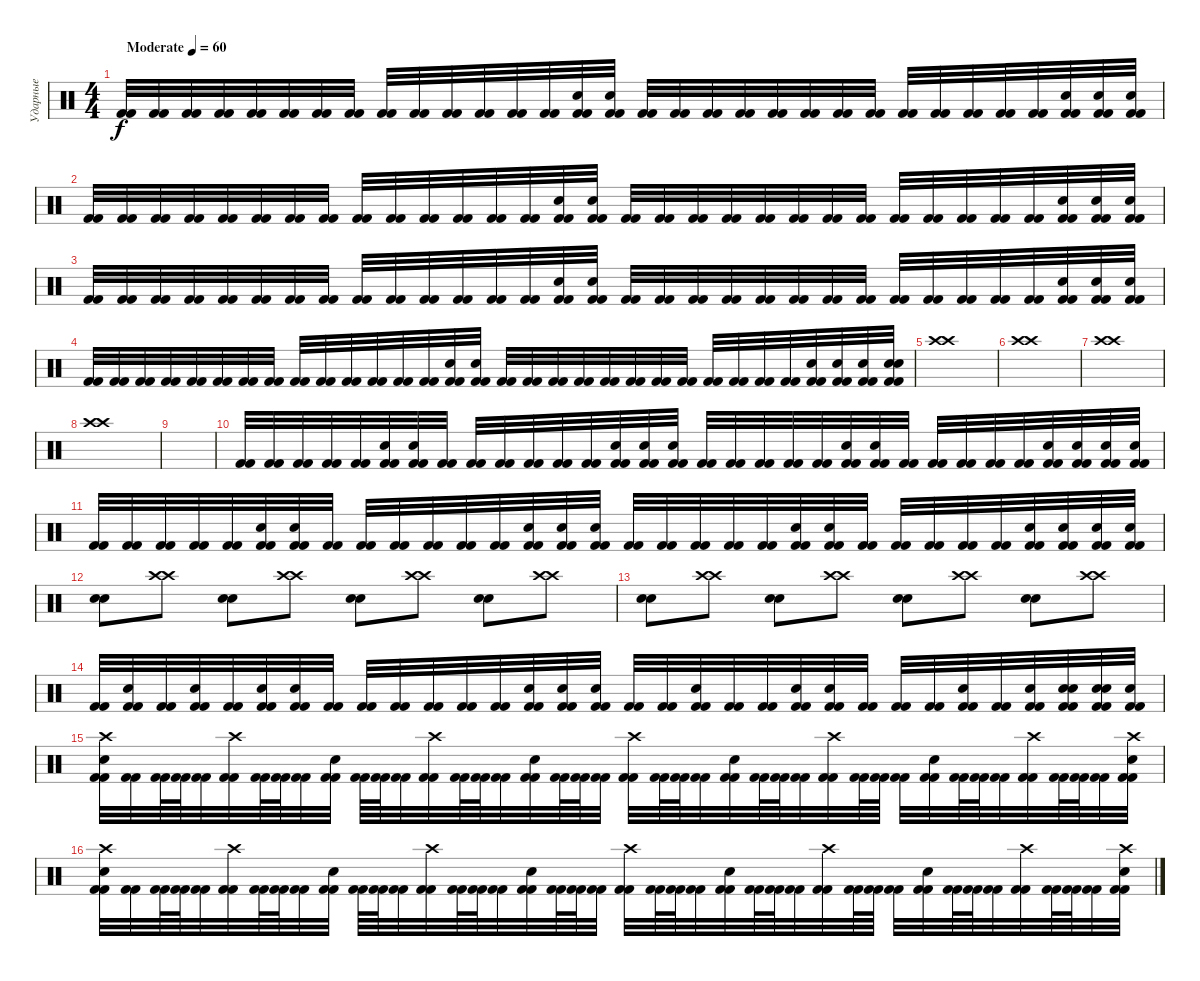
\track ("Ударные" "Ударные") {instrument percussion}
\staff {score}
\articulation defaults
\ts (4 4)
\tempo (60 "Moderate")
\clef neutral
\ks c
("Kick (hit) 2" "Kick (hit) 2").32{dy f} ("Kick (hit) 2" "Kick (hit) 2").32 ("Kick (hit) 2" "Kick (hit) 2").32 ("Kick (hit) 2" "Kick (hit) 2").32 ("Kick (hit) 2" "Kick (hit) 2").32 ("Kick (hit) 2" "Kick (hit) 2").32 ("Kick (hit) 2" "Kick (hit) 2").32 ("Kick (hit) 2" "Kick (hit) 2").32 ("Kick (hit) 2" "Kick (hit) 2").32 ("Kick (hit) 2" "Kick (hit) 2").32 ("Kick (hit) 2" "Kick (hit) 2").32 ("Kick (hit) 2" "Kick (hit) 2").32 ("Kick (hit) 2" "Kick (hit) 2").32 ("Kick (hit) 2" "Kick (hit) 2").32 ("Kick (hit) 2" "Kick (hit) 2" "Electric Snare (hit)").32 ("Kick (hit) 2" "Kick (hit) 2" "Electric Snare (hit)").32 ("Kick (hit) 2" "Kick (hit) 2").32 ("Kick (hit) 2" "Kick (hit) 2").32 ("Kick (hit) 2" "Kick (hit) 2").32 ("Kick (hit) 2" "Kick (hit) 2").32 ("Kick (hit) 2" "Kick (hit) 2").32 ("Kick (hit) 2" "Kick (hit) 2").32 ("Kick (hit) 2" "Kick (hit) 2").32 ("Kick (hit) 2" "Kick (hit) 2").32 ("Kick (hit) 2" "Kick (hit) 2").32 ("Kick (hit) 2" "Kick (hit) 2").32 ("Kick (hit) 2" "Kick (hit) 2").32 ("Kick (hit) 2" "Kick (hit) 2").32 ("Kick (hit) 2" "Kick (hit) 2").32 ("Kick (hit) 2" "Kick (hit) 2" "Electric Snare (hit)").32 ("Kick (hit) 2" "Kick (hit) 2" "Electric Snare (hit)").32 ("Kick (hit) 2" "Kick (hit) 2" "Electric Snare (hit)").32 |
("Kick (hit) 2" "Kick (hit) 2").32 ("Kick (hit) 2" "Kick (hit) 2").32 ("Kick (hit) 2" "Kick (hit) 2").32 ("Kick (hit) 2" "Kick (hit) 2").32 ("Kick (hit) 2" "Kick (hit) 2").32 ("Kick (hit) 2" "Kick (hit) 2").32 ("Kick (hit) 2" "Kick (hit) 2").32 ("Kick (hit) 2" "Kick (hit) 2").32 ("Kick (hit) 2" "Kick (hit) 2").32 ("Kick (hit) 2" "Kick (hit) 2").32 ("Kick (hit) 2" "Kick (hit) 2").32 ("Kick (hit) 2" "Kick (hit) 2").32 ("Kick (hit) 2" "Kick (hit) 2").32 ("Kick (hit) 2" "Kick (hit) 2").32 ("Kick (hit) 2" "Kick (hit) 2" "Electric Snare (hit)").32 ("Kick (hit) 2" "Kick (hit) 2" "Electric Snare (hit)").32 ("Kick (hit) 2" "Kick (hit) 2").32 ("Kick (hit) 2" "Kick (hit) 2").32 ("Kick (hit) 2" "Kick (hit) 2").32 ("Kick (hit) 2" "Kick (hit) 2").32 ("Kick (hit) 2" "Kick (hit) 2").32 ("Kick (hit) 2" "Kick (hit) 2").32 ("Kick (hit) 2" "Kick (hit) 2").32 ("Kick (hit) 2" "Kick (hit) 2").32 ("Kick (hit) 2" "Kick (hit) 2").32 ("Kick (hit) 2" "Kick (hit) 2").32 ("Kick (hit) 2" "Kick (hit) 2").32 ("Kick (hit) 2" "Kick (hit) 2").32 ("Kick (hit) 2" "Kick (hit) 2").32 ("Kick (hit) 2" "Kick (hit) 2" "Electric Snare (hit)").32 ("Kick (hit) 2" "Kick (hit) 2" "Electric Snare (hit)").32 ("Kick (hit) 2" "Kick (hit) 2" "Electric Snare (hit)").32 |
("Kick (hit) 2" "Kick (hit) 2").32 ("Kick (hit) 2" "Kick (hit) 2").32 ("Kick (hit) 2" "Kick (hit) 2").32 ("Kick (hit) 2" "Kick (hit) 2").32 ("Kick (hit) 2" "Kick (hit) 2").32 ("Kick (hit) 2" "Kick (hit) 2").32 ("Kick (hit) 2" "Kick (hit) 2").32 ("Kick (hit) 2" "Kick (hit) 2").32 ("Kick (hit) 2" "Kick (hit) 2").32 ("Kick (hit) 2" "Kick (hit) 2").32 ("Kick (hit) 2" "Kick (hit) 2").32 ("Kick (hit) 2" "Kick (hit) 2").32 ("Kick (hit) 2" "Kick (hit) 2").32 ("Kick (hit) 2" "Kick (hit) 2").32 ("Kick (hit) 2" "Kick (hit) 2" "Electric Snare (hit)").32 ("Kick (hit) 2" "Kick (hit) 2" "Electric Snare (hit)").32 ("Kick (hit) 2" "Kick (hit) 2").32 ("Kick (hit) 2" "Kick (hit) 2").32 ("Kick (hit) 2" "Kick (hit) 2").32 ("Kick (hit) 2" "Kick (hit) 2").32 ("Kick (hit) 2" "Kick (hit) 2").32 ("Kick (hit) 2" "Kick (hit) 2").32 ("Kick (hit) 2" "Kick (hit) 2").32 ("Kick (hit) 2" "Kick (hit) 2").32 ("Kick (hit) 2" "Kick (hit) 2").32 ("Kick (hit) 2" "Kick (hit) 2").32 ("Kick (hit) 2" "Kick (hit) 2").32 ("Kick (hit) 2" "Kick (hit) 2").32 ("Kick (hit) 2" "Kick (hit) 2").32 ("Kick (hit) 2" "Kick (hit) 2" "Electric Snare (hit)").32 ("Kick (hit) 2" "Kick (hit) 2" "Electric Snare (hit)").32 ("Kick (hit) 2" "Kick (hit) 2" "Electric Snare (hit)").32 |
("Kick (hit) 2" "Kick (hit) 2").32 ("Kick (hit) 2" "Kick (hit) 2").32 ("Kick (hit) 2" "Kick (hit) 2").32 ("Kick (hit) 2" "Kick (hit) 2").32 ("Kick (hit) 2" "Kick (hit) 2").32 ("Kick (hit) 2" "Kick (hit) 2").32 ("Kick (hit) 2" "Kick (hit) 2").32 ("Kick (hit) 2" "Kick (hit) 2").32 ("Kick (hit) 2" "Kick (hit) 2").32 ("Kick (hit) 2" "Kick (hit) 2").32 ("Kick (hit) 2" "Kick (hit) 2").32 ("Kick (hit) 2" "Kick (hit) 2").32 ("Kick (hit) 2" "Kick (hit) 2").32 ("Kick (hit) 2" "Kick (hit) 2").32 ("Kick (hit) 2" "Kick (hit) 2" "Electric Snare (hit)").32 ("Kick (hit) 2" "Kick (hit) 2" "Electric Snare (hit)").32 ("Kick (hit) 2" "Kick (hit) 2").32 ("Kick (hit) 2" "Kick (hit) 2").32 ("Kick (hit) 2" "Kick (hit) 2").32 ("Kick (hit) 2" "Kick (hit) 2").32 ("Kick (hit) 2" "Kick (hit) 2").32 ("Kick (hit) 2" "Kick (hit) 2").32 ("Kick (hit) 2" "Kick (hit) 2").32 ("Kick (hit) 2" "Kick (hit) 2").32 ("Kick (hit) 2" "Kick (hit) 2").32 ("Kick (hit) 2" "Kick (hit) 2").32 ("Kick (hit) 2" "Kick (hit) 2").32 ("Kick (hit) 2" "Kick (hit) 2").32 ("Kick (hit) 2" "Kick (hit) 2" "Electric Snare (hit)").32 ("Kick (hit) 2" "Kick (hit) 2" "Electric Snare (hit)").32 ("Kick (hit) 2" "Kick (hit) 2" "Electric Snare (hit)").32 ("Kick (hit) 2" "Kick (hit) 2" "Electric Snare (hit)" "Electric Snare (hit)").32 |
("Crash high (hit)" "Crash high (hit)").1 |
("Crash high (hit)" "Crash high (hit)").1 |
("Crash high (hit)" "Crash high (hit)").1 |
("Crash high (hit)" "Crash high (hit)").1 |
|
("Kick (hit) 2" "Kick (hit) 2").32 ("Kick (hit) 2" "Kick (hit) 2").32 ("Kick (hit) 2" "Kick (hit) 2").32 ("Kick (hit) 2" "Kick (hit) 2").32 ("Kick (hit) 2" "Kick (hit) 2").32 ("Kick (hit) 2" "Kick (hit) 2" "Electric Snare (hit)").32 ("Kick (hit) 2" "Kick (hit) 2" "Electric Snare (hit)").32 ("Kick (hit) 2" "Kick (hit) 2").32 ("Kick (hit) 2" "Kick (hit) 2").32 ("Kick (hit) 2" "Kick (hit) 2").32 ("Kick (hit) 2" "Kick (hit) 2").32 ("Kick (hit) 2" "Kick (hit) 2").32 ("Kick (hit) 2" "Kick (hit) 2").32 ("Kick (hit) 2" "Kick (hit) 2" "Electric Snare (hit)").32 ("Kick (hit) 2" "Kick (hit) 2" "Electric Snare (hit)").32 ("Kick (hit) 2" "Kick (hit) 2" "Electric Snare (hit)").32 ("Kick (hit) 2" "Kick (hit) 2").32 ("Kick (hit) 2" "Kick (hit) 2").32 ("Kick (hit) 2" "Kick (hit) 2").32 ("Kick (hit) 2" "Kick (hit) 2").32 ("Kick (hit) 2" "Kick (hit) 2").32 ("Kick (hit) 2" "Kick (hit) 2" "Electric Snare (hit)").32 ("Kick (hit) 2" "Kick (hit) 2" "Electric Snare (hit)").32 ("Kick (hit) 2" "Kick (hit) 2").32 ("Kick (hit) 2" "Kick (hit) 2").32 ("Kick (hit) 2" "Kick (hit) 2").32 ("Kick (hit) 2" "Kick (hit) 2").32 ("Kick (hit) 2" "Kick (hit) 2").32 ("Kick (hit) 2" "Kick (hit) 2" "Electric Snare (hit)").32 ("Kick (hit) 2" "Kick (hit) 2" "Electric Snare (hit)").32 ("Kick (hit) 2" "Kick (hit) 2" "Electric Snare (hit)").32 ("Kick (hit) 2" "Kick (hit) 2" "Electric Snare (hit)").32 |
("Kick (hit) 2" "Kick (hit) 2").32 ("Kick (hit) 2" "Kick (hit) 2").32 ("Kick (hit) 2" "Kick (hit) 2").32 ("Kick (hit) 2" "Kick (hit) 2").32 ("Kick (hit) 2" "Kick (hit) 2").32 ("Kick (hit) 2" "Kick (hit) 2" "Electric Snare (hit)").32 ("Kick (hit) 2" "Kick (hit) 2" "Electric Snare (hit)").32 ("Kick (hit) 2" "Kick (hit) 2").32 ("Kick (hit) 2" "Kick (hit) 2").32 ("Kick (hit) 2" "Kick (hit) 2").32 ("Kick (hit) 2" "Kick (hit) 2").32 ("Kick (hit) 2" "Kick (hit) 2").32 ("Kick (hit) 2" "Kick (hit) 2").32 ("Kick (hit) 2" "Kick (hit) 2" "Electric Snare (hit)").32 ("Kick (hit) 2" "Kick (hit) 2" "Electric Snare (hit)").32 ("Kick (hit) 2" "Kick (hit) 2" "Electric Snare (hit)").32 ("Kick (hit) 2" "Kick (hit) 2").32 ("Kick (hit) 2" "Kick (hit) 2").32 ("Kick (hit) 2" "Kick (hit) 2").32 ("Kick (hit) 2" "Kick (hit) 2").32 ("Kick (hit) 2" "Kick (hit) 2").32 ("Kick (hit) 2" "Kick (hit) 2" "Electric Snare (hit)").32 ("Kick (hit) 2" "Kick (hit) 2" "Electric Snare (hit)").32 ("Kick (hit) 2" "Kick (hit) 2").32 ("Kick (hit) 2" "Kick (hit) 2").32 ("Kick (hit) 2" "Kick (hit) 2").32 ("Kick (hit) 2" "Kick (hit) 2").32 ("Kick (hit) 2" "Kick (hit) 2").32 ("Kick (hit) 2" "Kick (hit) 2" "Electric Snare (hit)").32 ("Kick (hit) 2" "Kick (hit) 2" "Electric Snare (hit)").32 ("Kick (hit) 2" "Kick (hit) 2" "Electric Snare (hit)").32 ("Kick (hit) 2" "Kick (hit) 2" "Electric Snare (hit)").32 |
("Electric Snare (hit)" "Electric Snare (hit)").8 ("Crash high (hit)" "Crash high (hit)").8 ("Electric Snare (hit)" "Electric Snare (hit)").8 ("Crash high (hit)" "Crash high (hit)").8 ("Electric Snare (hit)" "Electric Snare (hit)").8 ("Crash high (hit)" "Crash high (hit)").8 ("Electric Snare (hit)" "Electric Snare (hit)").8 ("Crash high (hit)" "Crash high (hit)").8 |
("Electric Snare (hit)" "Electric Snare (hit)").8 ("Crash high (hit)" "Crash high (hit)").8 ("Electric Snare (hit)" "Electric Snare (hit)").8 ("Crash high (hit)" "Crash high (hit)").8 ("Electric Snare (hit)" "Electric Snare (hit)").8 ("Crash high (hit)" "Crash high (hit)").8 ("Electric Snare (hit)" "Electric Snare (hit)").8 ("Crash high (hit)" "Crash high (hit)").8 |
("Kick (hit) 2" "Kick (hit) 2").32 ("Kick (hit) 2" "Kick (hit) 2" "Electric Snare (hit)").32 ("Kick (hit) 2" "Kick (hit) 2").32 ("Kick (hit) 2" "Kick (hit) 2" "Electric Snare (hit)").32 ("Kick (hit) 2" "Kick (hit) 2").32 ("Kick (hit) 2" "Kick (hit) 2" "Electric Snare (hit)").32 ("Kick (hit) 2" "Kick (hit) 2" "Electric Snare (hit)").32 ("Kick (hit) 2" "Kick (hit) 2").32 ("Kick (hit) 2" "Kick (hit) 2").32 ("Kick (hit) 2" "Kick (hit) 2").32 ("Kick (hit) 2" "Kick (hit) 2").32 ("Kick (hit) 2" "Kick (hit) 2").32 ("Kick (hit) 2" "Kick (hit) 2").32 ("Kick (hit) 2" "Kick (hit) 2" "Electric Snare (hit)").32 ("Kick (hit) 2" "Kick (hit) 2" "Electric Snare (hit)").32 ("Kick (hit) 2" "Kick (hit) 2" "Electric Snare (hit)").32 ("Kick (hit) 2" "Kick (hit) 2").32 ("Kick (hit) 2" "Kick (hit) 2").32 ("Kick (hit) 2" "Kick (hit) 2" "Electric Snare (hit)").32 ("Kick (hit) 2" "Kick (hit) 2").32 ("Kick (hit) 2" "Kick (hit) 2").32 ("Kick (hit) 2" "Kick (hit) 2" "Electric Snare (hit)").32 ("Kick (hit) 2" "Kick (hit) 2" "Electric Snare (hit)").32 ("Kick (hit) 2" "Kick (hit) 2").32 ("Kick (hit) 2" "Kick (hit) 2").32 ("Kick (hit) 2" "Kick (hit) 2").32 ("Kick (hit) 2" "Kick (hit) 2" "Electric Snare (hit)").32 ("Kick (hit) 2" "Kick (hit) 2").32 ("Kick (hit) 2" "Kick (hit) 2" "Electric Snare (hit)").32 ("Kick (hit) 2" "Kick (hit) 2" "Electric Snare (hit)" "Electric Snare (hit)").32 ("Kick (hit) 2" "Kick (hit) 2" "Electric Snare (hit)" "Electric Snare (hit)").32 ("Kick (hit) 2" "Kick (hit) 2" "Electric Snare (hit)").32 |
("Kick (hit) 2" "Kick (hit) 2" "Electric Snare (hit)" "Crash high (hit)").32 ("Kick (hit) 2" "Kick (hit) 2").32 ("Kick (hit) 2" "Kick (hit) 2").64 ("Kick (hit) 2" "Kick (hit) 2").64 ("Kick (hit) 2" "Kick (hit) 2").32 ("Kick (hit) 2" "Kick (hit) 2" "Crash high (hit)").32 ("Kick (hit) 2" "Kick (hit) 2").64 ("Kick (hit) 2" "Kick (hit) 2").64 ("Kick (hit) 2" "Kick (hit) 2").32 ("Kick (hit) 2" "Kick (hit) 2" "Electric Snare (hit)").32 ("Kick (hit) 2" "Kick (hit) 2").64 ("Kick (hit) 2" "Kick (hit) 2").64 ("Kick (hit) 2" "Kick (hit) 2").32 ("Kick (hit) 2" "Kick (hit) 2" "Crash high (hit)").32 ("Kick (hit) 2" "Kick (hit) 2").64 ("Kick (hit) 2" "Kick (hit) 2").64 ("Kick (hit) 2" "Kick (hit) 2").32 ("Kick (hit) 2" "Kick (hit) 2" "Electric Snare (hit)").32 ("Kick (hit) 2" "Kick (hit) 2").64 ("Kick (hit) 2" "Kick (hit) 2").64 ("Kick (hit) 2" "Kick (hit) 2").32 ("Kick (hit) 2" "Kick (hit) 2" "Crash high (hit)").32 ("Kick (hit) 2" "Kick (hit) 2").64 ("Kick (hit) 2" "Kick (hit) 2").64 ("Kick (hit) 2" "Kick (hit) 2").32 ("Kick (hit) 2" "Kick (hit) 2" "Electric Snare (hit)").32 ("Kick (hit) 2" "Kick (hit) 2").64 ("Kick (hit) 2" "Kick (hit) 2").64 ("Kick (hit) 2" "Kick (hit) 2").32 ("Kick (hit) 2" "Kick (hit) 2" "Crash high (hit)").32 ("Kick (hit) 2" "Kick (hit) 2").64 ("Kick (hit) 2" "Kick (hit) 2").64 ("Kick (hit) 2" "Kick (hit) 2").32 ("Kick (hit) 2" "Kick (hit) 2" "Electric Snare (hit)").32 ("Kick (hit) 2" "Kick (hit) 2").64 ("Kick (hit) 2" "Kick (hit) 2").64 ("Kick (hit) 2" "Kick (hit) 2").32 ("Kick (hit) 2" "Kick (hit) 2" "Crash high (hit)").32 ("Kick (hit) 2" "Kick (hit) 2").64 ("Kick (hit) 2" "Kick (hit) 2").64 ("Kick (hit) 2" "Kick (hit) 2").32 ("Kick (hit) 2" "Kick (hit) 2" "Electric Snare (hit)" "Crash high (hit)").32 |
("Kick (hit) 2" "Kick (hit) 2" "Electric Snare (hit)" "Crash high (hit)").32 ("Kick (hit) 2" "Kick (hit) 2").32 ("Kick (hit) 2" "Kick (hit) 2").64 ("Kick (hit) 2" "Kick (hit) 2").64 ("Kick (hit) 2" "Kick (hit) 2").32 ("Kick (hit) 2" "Kick (hit) 2" "Crash high (hit)").32 ("Kick (hit) 2" "Kick (hit) 2").64 ("Kick (hit) 2" "Kick (hit) 2").64 ("Kick (hit) 2" "Kick (hit) 2").32 ("Kick (hit) 2" "Kick (hit) 2" "Electric Snare (hit)").32 ("Kick (hit) 2" "Kick (hit) 2").64 ("Kick (hit) 2" "Kick (hit) 2").64 ("Kick (hit) 2" "Kick (hit) 2").32 ("Kick (hit) 2" "Kick (hit) 2" "Crash high (hit)").32 ("Kick (hit) 2" "Kick (hit) 2").64 ("Kick (hit) 2" "Kick (hit) 2").64 ("Kick (hit) 2" "Kick (hit) 2").32 ("Kick (hit) 2" "Kick (hit) 2" "Electric Snare (hit)").32 ("Kick (hit) 2" "Kick (hit) 2").64 ("Kick (hit) 2" "Kick (hit) 2").64 ("Kick (hit) 2" "Kick (hit) 2").32 ("Kick (hit) 2" "Kick (hit) 2" "Crash high (hit)").32 ("Kick (hit) 2" "Kick (hit) 2").64 ("Kick (hit) 2" "Kick (hit) 2").64 ("Kick (hit) 2" "Kick (hit) 2").32 ("Kick (hit) 2" "Kick (hit) 2" "Electric Snare (hit)").32 ("Kick (hit) 2" "Kick (hit) 2").64 ("Kick (hit) 2" "Kick (hit) 2").64 ("Kick (hit) 2" "Kick (hit) 2").32 ("Kick (hit) 2" "Kick (hit) 2" "Crash high (hit)").32 ("Kick (hit) 2" "Kick (hit) 2").64 ("Kick (hit) 2" "Kick (hit) 2").64 ("Kick (hit) 2" "Kick (hit) 2").32 ("Kick (hit) 2" "Kick (hit) 2" "Electric Snare (hit)").32 ("Kick (hit) 2" "Kick (hit) 2").64 ("Kick (hit) 2" "Kick (hit) 2").64 ("Kick (hit) 2" "Kick (hit) 2").32 ("Kick (hit) 2" "Kick (hit) 2" "Crash high (hit)").32 ("Kick (hit) 2" "Kick (hit) 2").64 ("Kick (hit) 2" "Kick (hit) 2").64 ("Kick (hit) 2" "Kick (hit) 2").32 ("Kick (hit) 2" "Kick (hit) 2" "Electric Snare (hit)" "Crash high (hit)").32
